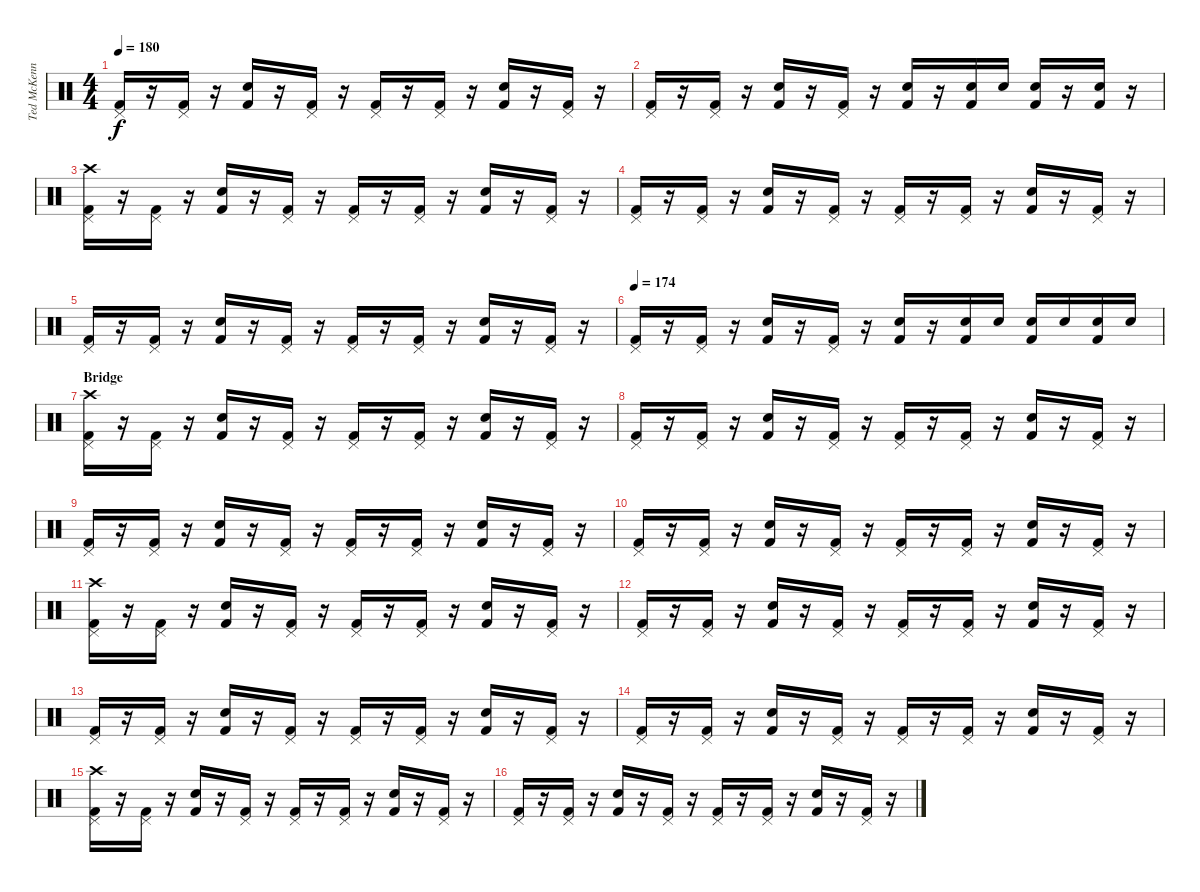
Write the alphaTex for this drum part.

\track ("Ted McKenna" "Ted McKenn") {instrument percussion}
\staff {score}
\articulation defaults
\ts (4 4)
\tempo 180
\clef neutral
\ks c
("Pedal Hi-Hat (hit)" "Kick (hit) 2").16{dy f} r.16 ("Pedal Hi-Hat (hit)" "Kick (hit) 2").16 r.16 ("Snare (hit) 2" "Kick (hit) 2").16 r.16 ("Pedal Hi-Hat (hit)" "Kick (hit) 2").16 r.16 ("Pedal Hi-Hat (hit)" "Kick (hit) 2").16 r.16 ("Pedal Hi-Hat (hit)" "Kick (hit) 2").16 r.16 ("Snare (hit) 2" "Kick (hit) 2").16 r.16 ("Pedal Hi-Hat (hit)" "Kick (hit) 2").16 r.16 |
("Pedal Hi-Hat (hit)" "Kick (hit) 2").16 r.16 ("Pedal Hi-Hat (hit)" "Kick (hit) 2").16 r.16 ("Snare (hit) 2" "Kick (hit) 2").16 r.16 ("Pedal Hi-Hat (hit)" "Kick (hit) 2").16 r.16 ("Electric Snare (hit)" "Kick (hit) 2").16 r.16 ("Electric Snare (hit)" "Kick (hit) 2").16 "Electric Snare (hit)".16 ("Electric Snare (hit)" "Kick (hit) 2").16 r.16 ("Electric Snare (hit)" "Kick (hit) 2").16 r.16 |
("Crash high (hit)" "Pedal Hi-Hat (hit)" "Kick (hit) 2").16 r.16 ("Pedal Hi-Hat (hit)" "Kick (hit) 2").16 r.16 ("Snare (hit) 2" "Kick (hit) 2").16 r.16 ("Pedal Hi-Hat (hit)" "Kick (hit) 2").16 r.16 ("Pedal Hi-Hat (hit)" "Kick (hit) 2").16 r.16 ("Pedal Hi-Hat (hit)" "Kick (hit) 2").16 r.16 ("Snare (hit) 2" "Kick (hit) 2").16 r.16 ("Pedal Hi-Hat (hit)" "Kick (hit) 2").16 r.16 |
("Pedal Hi-Hat (hit)" "Kick (hit) 2").16 r.16 ("Pedal Hi-Hat (hit)" "Kick (hit) 2").16 r.16 ("Snare (hit) 2" "Kick (hit) 2").16 r.16 ("Pedal Hi-Hat (hit)" "Kick (hit) 2").16 r.16 ("Pedal Hi-Hat (hit)" "Kick (hit) 2").16 r.16 ("Pedal Hi-Hat (hit)" "Kick (hit) 2").16 r.16 ("Snare (hit) 2" "Kick (hit) 2").16 r.16 ("Pedal Hi-Hat (hit)" "Kick (hit) 2").16 r.16 |
("Pedal Hi-Hat (hit)" "Kick (hit) 2").16 r.16 ("Pedal Hi-Hat (hit)" "Kick (hit) 2").16 r.16 ("Snare (hit) 2" "Kick (hit) 2").16 r.16 ("Pedal Hi-Hat (hit)" "Kick (hit) 2").16 r.16 ("Pedal Hi-Hat (hit)" "Kick (hit) 2").16 r.16 ("Pedal Hi-Hat (hit)" "Kick (hit) 2").16 r.16 ("Snare (hit) 2" "Kick (hit) 2").16 r.16 ("Pedal Hi-Hat (hit)" "Kick (hit) 2").16 r.16 |
\tempo 174
("Pedal Hi-Hat (hit)" "Kick (hit) 2").16 r.16 ("Pedal Hi-Hat (hit)" "Kick (hit) 2").16 r.16 ("Snare (hit) 2" "Kick (hit) 2").16 r.16 ("Pedal Hi-Hat (hit)" "Kick (hit) 2").16 r.16 ("Electric Snare (hit)" "Kick (hit) 2").16 r.16 ("Electric Snare (hit)" "Kick (hit) 2").16 "Electric Snare (hit)".16 ("Snare (hit) 2" "Kick (hit) 2").16 "Electric Snare (hit)".16 ("Electric Snare (hit)" "Kick (hit) 2").16 "Electric Snare (hit)".16 |
\section ("" "Bridge")
("Crash high (hit)" "Pedal Hi-Hat (hit)" "Kick (hit) 2").16 r.16 ("Pedal Hi-Hat (hit)" "Kick (hit) 2").16 r.16 ("Snare (hit) 2" "Kick (hit) 2").16 r.16 ("Pedal Hi-Hat (hit)" "Kick (hit) 2").16 r.16 ("Pedal Hi-Hat (hit)" "Kick (hit) 2").16 r.16 ("Pedal Hi-Hat (hit)" "Kick (hit) 2").16 r.16 ("Snare (hit) 2" "Kick (hit) 2").16 r.16 ("Pedal Hi-Hat (hit)" "Kick (hit) 2").16 r.16 |
("Pedal Hi-Hat (hit)" "Kick (hit) 2").16 r.16 ("Pedal Hi-Hat (hit)" "Kick (hit) 2").16 r.16 ("Snare (hit) 2" "Kick (hit) 2").16 r.16 ("Pedal Hi-Hat (hit)" "Kick (hit) 2").16 r.16 ("Pedal Hi-Hat (hit)" "Kick (hit) 2").16 r.16 ("Pedal Hi-Hat (hit)" "Kick (hit) 2").16 r.16 ("Snare (hit) 2" "Kick (hit) 2").16 r.16 ("Pedal Hi-Hat (hit)" "Kick (hit) 2").16 r.16 |
("Pedal Hi-Hat (hit)" "Kick (hit) 2").16 r.16 ("Pedal Hi-Hat (hit)" "Kick (hit) 2").16 r.16 ("Snare (hit) 2" "Kick (hit) 2").16 r.16 ("Pedal Hi-Hat (hit)" "Kick (hit) 2").16 r.16 ("Pedal Hi-Hat (hit)" "Kick (hit) 2").16 r.16 ("Pedal Hi-Hat (hit)" "Kick (hit) 2").16 r.16 ("Snare (hit) 2" "Kick (hit) 2").16 r.16 ("Pedal Hi-Hat (hit)" "Kick (hit) 2").16 r.16 |
("Pedal Hi-Hat (hit)" "Kick (hit) 2").16 r.16 ("Pedal Hi-Hat (hit)" "Kick (hit) 2").16 r.16 ("Snare (hit) 2" "Kick (hit) 2").16 r.16 ("Pedal Hi-Hat (hit)" "Kick (hit) 2").16 r.16 ("Pedal Hi-Hat (hit)" "Kick (hit) 2").16 r.16 ("Pedal Hi-Hat (hit)" "Kick (hit) 2").16 r.16 ("Snare (hit) 2" "Kick (hit) 2").16 r.16 ("Pedal Hi-Hat (hit)" "Kick (hit) 2").16 r.16 |
("Crash high (hit)" "Pedal Hi-Hat (hit)" "Kick (hit) 2").16 r.16 ("Pedal Hi-Hat (hit)" "Kick (hit) 2").16 r.16 ("Snare (hit) 2" "Kick (hit) 2").16 r.16 ("Pedal Hi-Hat (hit)" "Kick (hit) 2").16 r.16 ("Pedal Hi-Hat (hit)" "Kick (hit) 2").16 r.16 ("Pedal Hi-Hat (hit)" "Kick (hit) 2").16 r.16 ("Snare (hit) 2" "Kick (hit) 2").16 r.16 ("Pedal Hi-Hat (hit)" "Kick (hit) 2").16 r.16 |
("Pedal Hi-Hat (hit)" "Kick (hit) 2").16 r.16 ("Pedal Hi-Hat (hit)" "Kick (hit) 2").16 r.16 ("Snare (hit) 2" "Kick (hit) 2").16 r.16 ("Pedal Hi-Hat (hit)" "Kick (hit) 2").16 r.16 ("Pedal Hi-Hat (hit)" "Kick (hit) 2").16 r.16 ("Pedal Hi-Hat (hit)" "Kick (hit) 2").16 r.16 ("Snare (hit) 2" "Kick (hit) 2").16 r.16 ("Pedal Hi-Hat (hit)" "Kick (hit) 2").16 r.16 |
("Pedal Hi-Hat (hit)" "Kick (hit) 2").16 r.16 ("Pedal Hi-Hat (hit)" "Kick (hit) 2").16 r.16 ("Snare (hit) 2" "Kick (hit) 2").16 r.16 ("Pedal Hi-Hat (hit)" "Kick (hit) 2").16 r.16 ("Pedal Hi-Hat (hit)" "Kick (hit) 2").16 r.16 ("Pedal Hi-Hat (hit)" "Kick (hit) 2").16 r.16 ("Snare (hit) 2" "Kick (hit) 2").16 r.16 ("Pedal Hi-Hat (hit)" "Kick (hit) 2").16 r.16 |
("Pedal Hi-Hat (hit)" "Kick (hit) 2").16 r.16 ("Pedal Hi-Hat (hit)" "Kick (hit) 2").16 r.16 ("Snare (hit) 2" "Kick (hit) 2").16 r.16 ("Pedal Hi-Hat (hit)" "Kick (hit) 2").16 r.16 ("Pedal Hi-Hat (hit)" "Kick (hit) 2").16 r.16 ("Pedal Hi-Hat (hit)" "Kick (hit) 2").16 r.16 ("Snare (hit) 2" "Kick (hit) 2").16 r.16 ("Pedal Hi-Hat (hit)" "Kick (hit) 2").16 r.16 |
("Crash high (hit)" "Pedal Hi-Hat (hit)" "Kick (hit) 2").16 r.16 ("Pedal Hi-Hat (hit)" "Kick (hit) 2").16 r.16 ("Snare (hit) 2" "Kick (hit) 2").16 r.16 ("Pedal Hi-Hat (hit)" "Kick (hit) 2").16 r.16 ("Pedal Hi-Hat (hit)" "Kick (hit) 2").16 r.16 ("Pedal Hi-Hat (hit)" "Kick (hit) 2").16 r.16 ("Snare (hit) 2" "Kick (hit) 2").16 r.16 ("Pedal Hi-Hat (hit)" "Kick (hit) 2").16 r.16 |
("Pedal Hi-Hat (hit)" "Kick (hit) 2").16 r.16 ("Pedal Hi-Hat (hit)" "Kick (hit) 2").16 r.16 ("Snare (hit) 2" "Kick (hit) 2").16 r.16 ("Pedal Hi-Hat (hit)" "Kick (hit) 2").16 r.16 ("Pedal Hi-Hat (hit)" "Kick (hit) 2").16 r.16 ("Pedal Hi-Hat (hit)" "Kick (hit) 2").16 r.16 ("Snare (hit) 2" "Kick (hit) 2").16 r.16 ("Pedal Hi-Hat (hit)" "Kick (hit) 2").16 r.16
